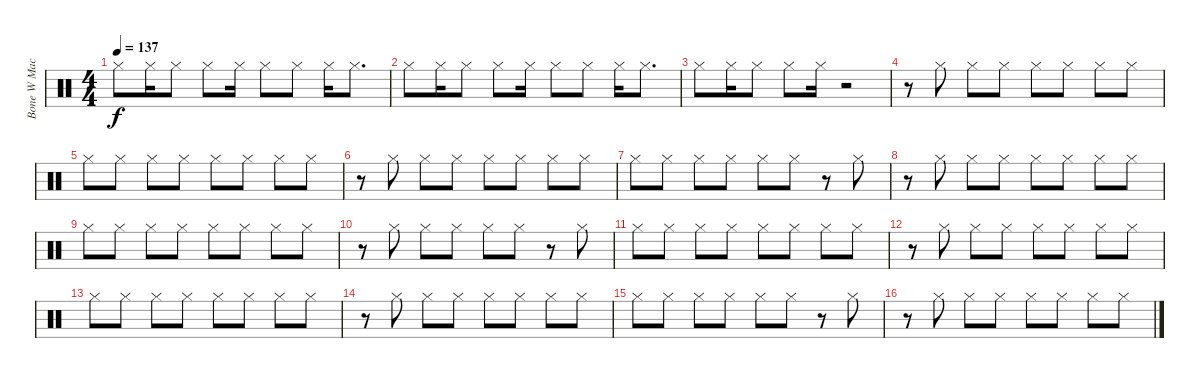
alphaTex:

\track ("Bone W Machine Cimbals" "Bone W Mac") {instrument percussion}
\staff {score}
\articulation defaults
\ts (4 4)
\tempo 137
\clef neutral
\ks c "Hi-Hat (closed)".8{dy f} "Hi-Hat (closed)".16 "Hi-Hat (closed)".8 "Hi-Hat (closed)".8 "Hi-Hat (closed)".16 "Hi-Hat (closed)".8 "Hi-Hat (closed)".8 "Hi-Hat (closed)".16 "Hi-Hat (closed)".8{d}
|
"Hi-Hat (closed)".8 "Hi-Hat (closed)".16 "Hi-Hat (closed)".8 "Hi-Hat (closed)".8 "Hi-Hat (closed)".16 "Hi-Hat (closed)".8 "Hi-Hat (closed)".8 "Hi-Hat (closed)".16 "Hi-Hat (closed)".8{d} |
"Hi-Hat (closed)".8 "Hi-Hat (closed)".16 "Hi-Hat (closed)".8 "Hi-Hat (closed)".8 "Hi-Hat (closed)".16 r.2 |
r.8 "Hi-Hat (closed)".8 "Hi-Hat (closed)".8 "Hi-Hat (closed)".8 "Hi-Hat (closed)".8 "Hi-Hat (closed)".8 "Hi-Hat (closed)".8 "Hi-Hat (closed)".8 |
"Hi-Hat (closed)".8 "Hi-Hat (closed)".8 "Hi-Hat (closed)".8 "Hi-Hat (closed)".8 "Hi-Hat (closed)".8 "Hi-Hat (closed)".8 "Hi-Hat (closed)".8 "Hi-Hat (closed)".8 |
r.8 "Hi-Hat (closed)".8 "Hi-Hat (closed)".8 "Hi-Hat (closed)".8 "Hi-Hat (closed)".8 "Hi-Hat (closed)".8 "Hi-Hat (closed)".8 "Hi-Hat (closed)".8 |
"Hi-Hat (closed)".8 "Hi-Hat (closed)".8 "Hi-Hat (closed)".8 "Hi-Hat (closed)".8 "Hi-Hat (closed)".8 "Hi-Hat (closed)".8 r.8 "Hi-Hat (closed)".8 |
r.8 "Hi-Hat (closed)".8 "Hi-Hat (closed)".8 "Hi-Hat (closed)".8 "Hi-Hat (closed)".8 "Hi-Hat (closed)".8 "Hi-Hat (closed)".8 "Hi-Hat (closed)".8 |
"Hi-Hat (closed)".8 "Hi-Hat (closed)".8 "Hi-Hat (closed)".8 "Hi-Hat (closed)".8 "Hi-Hat (closed)".8 "Hi-Hat (closed)".8 "Hi-Hat (closed)".8 "Hi-Hat (closed)".8 |
r.8 "Hi-Hat (closed)".8 "Hi-Hat (closed)".8 "Hi-Hat (closed)".8 "Hi-Hat (closed)".8 "Hi-Hat (closed)".8 r.8 "Hi-Hat (closed)".8 |
"Hi-Hat (closed)".8 "Hi-Hat (closed)".8 "Hi-Hat (closed)".8 "Hi-Hat (closed)".8 "Hi-Hat (closed)".8 "Hi-Hat (closed)".8 "Hi-Hat (closed)".8 "Hi-Hat (closed)".8 |
r.8 "Hi-Hat (closed)".8 "Hi-Hat (closed)".8 "Hi-Hat (closed)".8 "Hi-Hat (closed)".8 "Hi-Hat (closed)".8 "Hi-Hat (closed)".8 "Hi-Hat (closed)".8 |
"Hi-Hat (closed)".8 "Hi-Hat (closed)".8 "Hi-Hat (closed)".8 "Hi-Hat (closed)".8 "Hi-Hat (closed)".8 "Hi-Hat (closed)".8 "Hi-Hat (closed)".8 "Hi-Hat (closed)".8 |
r.8 "Hi-Hat (closed)".8 "Hi-Hat (closed)".8 "Hi-Hat (closed)".8 "Hi-Hat (closed)".8 "Hi-Hat (closed)".8 "Hi-Hat (closed)".8 "Hi-Hat (closed)".8 |
"Hi-Hat (closed)".8 "Hi-Hat (closed)".8 "Hi-Hat (closed)".8 "Hi-Hat (closed)".8 "Hi-Hat (closed)".8 "Hi-Hat (closed)".8 r.8 "Hi-Hat (closed)".8 |
r.8 "Hi-Hat (closed)".8 "Hi-Hat (closed)".8 "Hi-Hat (closed)".8 "Hi-Hat (closed)".8 "Hi-Hat (closed)".8 "Hi-Hat (closed)".8 "Hi-Hat (closed)".8
